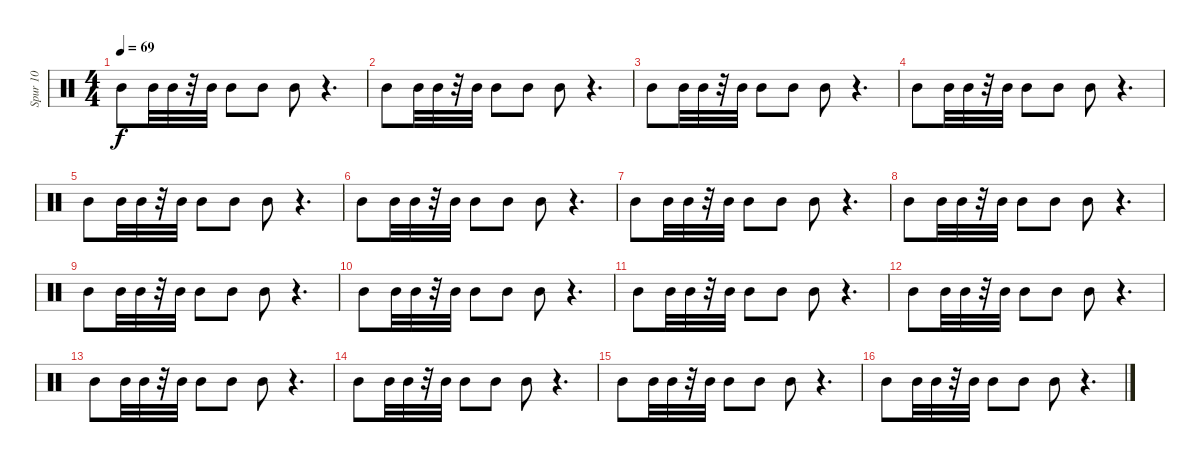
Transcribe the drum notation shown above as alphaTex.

\track ("Spur 10" "Spur 10") {instrument percussion}
\staff {score}
\articulation defaults
\ts (4 4)
\tempo 69
\clef neutral
\ks c "Mid Tom (hit)".8{dy f} "Mid Tom (hit)".32 "Mid Tom (hit)".32
r.32 "Mid Tom (hit)".32 "Mid Tom (hit)".8 "Mid Tom (hit)".8 "Mid Tom (hit)".8 r.4{d} |
"Mid Tom (hit)".8 "Mid Tom (hit)".32 "Mid Tom (hit)".32 r.32 "Mid Tom (hit)".32 "Mid Tom (hit)".8 "Mid Tom (hit)".8 "Mid Tom (hit)".8 r.4{d} |
"Mid Tom (hit)".8 "Mid Tom (hit)".32 "Mid Tom (hit)".32 r.32 "Mid Tom (hit)".32 "Mid Tom (hit)".8 "Mid Tom (hit)".8 "Mid Tom (hit)".8 r.4{d} |
"Mid Tom (hit)".8 "Mid Tom (hit)".32 "Mid Tom (hit)".32 r.32 "Mid Tom (hit)".32 "Mid Tom (hit)".8 "Mid Tom (hit)".8 "Mid Tom (hit)".8 r.4{d} |
"Mid Tom (hit)".8 "Mid Tom (hit)".32 "Mid Tom (hit)".32 r.32 "Mid Tom (hit)".32 "Mid Tom (hit)".8 "Mid Tom (hit)".8 "Mid Tom (hit)".8 r.4{d} |
"Mid Tom (hit)".8 "Mid Tom (hit)".32 "Mid Tom (hit)".32 r.32 "Mid Tom (hit)".32 "Mid Tom (hit)".8 "Mid Tom (hit)".8 "Mid Tom (hit)".8 r.4{d} |
"Mid Tom (hit)".8 "Mid Tom (hit)".32 "Mid Tom (hit)".32 r.32 "Mid Tom (hit)".32 "Mid Tom (hit)".8 "Mid Tom (hit)".8 "Mid Tom (hit)".8 r.4{d} |
"Mid Tom (hit)".8 "Mid Tom (hit)".32 "Mid Tom (hit)".32 r.32 "Mid Tom (hit)".32 "Mid Tom (hit)".8 "Mid Tom (hit)".8 "Mid Tom (hit)".8 r.4{d} |
"Mid Tom (hit)".8 "Mid Tom (hit)".32 "Mid Tom (hit)".32 r.32 "Mid Tom (hit)".32 "Mid Tom (hit)".8 "Mid Tom (hit)".8 "Mid Tom (hit)".8 r.4{d} |
"Mid Tom (hit)".8 "Mid Tom (hit)".32 "Mid Tom (hit)".32 r.32 "Mid Tom (hit)".32 "Mid Tom (hit)".8 "Mid Tom (hit)".8 "Mid Tom (hit)".8 r.4{d} |
"Mid Tom (hit)".8 "Mid Tom (hit)".32 "Mid Tom (hit)".32 r.32 "Mid Tom (hit)".32 "Mid Tom (hit)".8 "Mid Tom (hit)".8 "Mid Tom (hit)".8 r.4{d} |
"Mid Tom (hit)".8 "Mid Tom (hit)".32 "Mid Tom (hit)".32 r.32 "Mid Tom (hit)".32 "Mid Tom (hit)".8 "Mid Tom (hit)".8 "Mid Tom (hit)".8 r.4{d} |
"Mid Tom (hit)".8 "Mid Tom (hit)".32 "Mid Tom (hit)".32 r.32 "Mid Tom (hit)".32 "Mid Tom (hit)".8 "Mid Tom (hit)".8 "Mid Tom (hit)".8 r.4{d} |
"Mid Tom (hit)".8 "Mid Tom (hit)".32 "Mid Tom (hit)".32 r.32 "Mid Tom (hit)".32 "Mid Tom (hit)".8 "Mid Tom (hit)".8 "Mid Tom (hit)".8 r.4{d} |
"Mid Tom (hit)".8 "Mid Tom (hit)".32 "Mid Tom (hit)".32 r.32 "Mid Tom (hit)".32 "Mid Tom (hit)".8 "Mid Tom (hit)".8 "Mid Tom (hit)".8 r.4{d} |
"Mid Tom (hit)".8 "Mid Tom (hit)".32 "Mid Tom (hit)".32 r.32 "Mid Tom (hit)".32 "Mid Tom (hit)".8 "Mid Tom (hit)".8 "Mid Tom (hit)".8 r.4{d}
